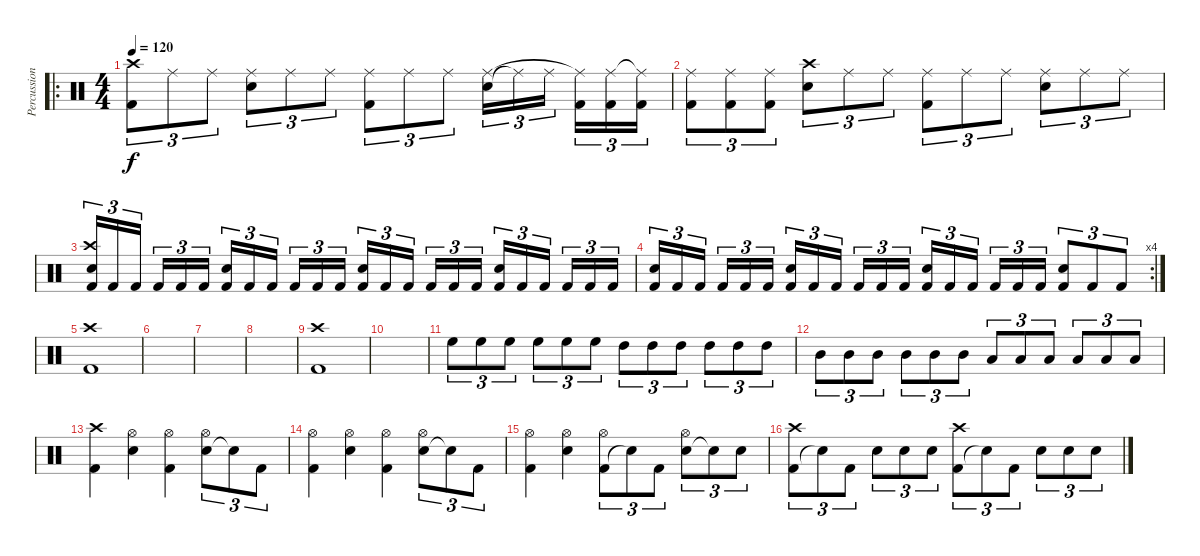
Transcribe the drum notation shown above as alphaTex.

\track ("Percussions" "Percussion") {instrument percussion}
\staff {score}
\articulation defaults
\ro
\ts (4 4)
\tempo 120
\clef neutral
\ks c
("Kick (hit) 2" "Crash high (hit)").8{tu (3 2) dy f} "Ride (middle)".8{tu (3 2)} "Ride (middle)".8{tu (3 2)} ("Snare (hit) 2" "Ride (middle)").8{tu (3 2)} "Ride (middle)".8{tu (3 2)} "Ride (middle)".8{tu (3 2)} ("Kick (hit) 2" "Ride (middle)").8{tu (3 2)} "Ride (middle)".8{tu (3 2)} "Ride (middle)".8{tu (3 2)} ("Snare (hit) 2" "Ride (middle)").16{tu (3 2)} "Ride (middle)"{t}.16{tu (3 2)} "Ride (middle)".16{tu (3 2)} ("Kick (hit) 2" "Ride (middle)"{t}).16{tu (3 2)} ("Kick (hit) 2" "Ride (middle)").16{tu (3 2)} ("Kick (hit) 2" "Ride (middle)"{t}).16{tu (3 2)} |
("Kick (hit) 2" "Ride (middle)").8{tu (3 2)} ("Kick (hit) 2" "Ride (middle)").8{tu (3 2)} ("Kick (hit) 2" "Ride (middle)").8{tu (3 2)} ("Snare (hit) 2" "Crash high (hit)").8{tu (3 2)} "Ride (middle)".8{tu (3 2)} "Ride (middle)".8{tu (3 2)} ("Kick (hit) 2" "Ride (middle)").8{tu (3 2)} "Ride (middle)".8{tu (3 2)} "Ride (middle)".8{tu (3 2)} ("Snare (hit) 2" "Ride (middle)").8{tu (3 2)} "Ride (middle)".8{tu (3 2)} "Ride (middle)".8{tu (3 2)} |
("Kick (hit) 2" "Snare (hit) 2" "Crash high (hit)").16{tu (3 2)} "Kick (hit) 2".16{tu (3 2)} "Kick (hit) 2".16{tu (3 2)} "Kick (hit) 2".16{tu (3 2)} "Kick (hit) 2".16{tu (3 2)} "Kick (hit) 2".16{tu (3 2)} ("Kick (hit) 2" "Snare (hit) 2").16{tu (3 2)} "Kick (hit) 2".16{tu (3 2)} "Kick (hit) 2".16{tu (3 2)} "Kick (hit) 2".16{tu (3 2)} "Kick (hit) 2".16{tu (3 2)} "Kick (hit) 2".16{tu (3 2)} ("Kick (hit) 2" "Snare (hit) 2").16{tu (3 2)} "Kick (hit) 2".16{tu (3 2)} "Kick (hit) 2".16{tu (3 2)} "Kick (hit) 2".16{tu (3 2)} "Kick (hit) 2".16{tu (3 2)} "Kick (hit) 2".16{tu (3 2)} ("Kick (hit) 2" "Snare (hit) 2").16{tu (3 2)} "Kick (hit) 2".16{tu (3 2)} "Kick (hit) 2".16{tu (3 2)} "Kick (hit) 2".16{tu (3 2)} "Kick (hit) 2".16{tu (3 2)} "Kick (hit) 2".16{tu (3 2)} |
\rc 4
("Kick (hit) 2" "Snare (hit) 2").16{tu (3 2)} "Kick (hit) 2".16{tu (3 2)} "Kick (hit) 2".16{tu (3 2)} "Kick (hit) 2".16{tu (3 2)} "Kick (hit) 2".16{tu (3 2)} "Kick (hit) 2".16{tu (3 2)} ("Kick (hit) 2" "Snare (hit) 2").16{tu (3 2)} "Kick (hit) 2".16{tu (3 2)} "Kick (hit) 2".16{tu (3 2)} "Kick (hit) 2".16{tu (3 2)} "Kick (hit) 2".16{tu (3 2)} "Kick (hit) 2".16{tu (3 2)} ("Kick (hit) 2" "Snare (hit) 2").16{tu (3 2)} "Kick (hit) 2".16{tu (3 2)} "Kick (hit) 2".16{tu (3 2)} "Kick (hit) 2".16{tu (3 2)} "Kick (hit) 2".16{tu (3 2)} "Kick (hit) 2".16{tu (3 2)} ("Kick (hit) 2" "Snare (hit) 2").8{tu (3 2)} "Kick (hit) 2".8{tu (3 2)} "Kick (hit) 2".8{tu (3 2)} |
("Kick (hit) 2" "Crash high (hit)").1 |
|
|
|
("Kick (hit) 2" "Crash high (hit)").1 |
|
"High Floor Tom (hit)".8{tu (3 2)} "High Floor Tom (hit)".8{tu (3 2)} "High Floor Tom (hit)".8{tu (3 2)} "High Floor Tom (hit)".8{tu (3 2)} "High Floor Tom (hit)".8{tu (3 2)} "High Floor Tom (hit)".8{tu (3 2)} "High Tom (hit)".8{tu (3 2)} "High Tom (hit)".8{tu (3 2)} "High Tom (hit)".8{tu (3 2)} "High Tom (hit)".8{tu (3 2)} "High Tom (hit)".8{tu (3 2)} "High Tom (hit)".8{tu (3 2)} |
"Mid Tom (hit)".8{tu (3 2)} "Mid Tom (hit)".8{tu (3 2)} "Mid Tom (hit)".8{tu (3 2)} "Mid Tom (hit)".8{tu (3 2)} "Mid Tom (hit)".8{tu (3 2)} "Mid Tom (hit)".8{tu (3 2)} "Low Tom (hit)".8{tu (3 2)} "Low Tom (hit)".8{tu (3 2)} "Low Tom (hit)".8{tu (3 2)} "Low Tom (hit)".8{tu (3 2)} "Low Tom (hit)".8{tu (3 2)} "Low Tom (hit)".8{tu (3 2)} |
("Kick (hit) 2" "Crash high (hit)").4 ("Snare (hit) 2" "Hi-Hat (open)").4 ("Kick (hit) 2" "Hi-Hat (open)").4 ("Snare (hit) 2" "Hi-Hat (open)").8{tu (3 2)} "Snare (hit)"{t}.8{tu (3 2)} "Kick (hit) 2".8{tu (3 2)} |
("Kick (hit) 2" "Hi-Hat (open)").4 ("Snare (hit) 2" "Hi-Hat (open)").4 ("Kick (hit) 2" "Hi-Hat (open)").4 ("Snare (hit) 2" "Hi-Hat (open)").8{tu (3 2)} "Snare (hit)"{t}.8{tu (3 2)} "Kick (hit) 2".8{tu (3 2)} |
("Kick (hit) 2" "Hi-Hat (open)").4 ("Snare (hit) 2" "Hi-Hat (open)").4 ("Kick (hit) 2" "Hi-Hat (open)").8{tu (3 2)} "Snare (hit)"{t}.8{tu (3 2)} "Kick (hit) 2".8{tu (3 2)} ("Snare (hit) 2" "Hi-Hat (open)").8{tu (3 2)} "Snare (hit)"{t}.8{tu (3 2)} "Snare (hit) 2".8{tu (3 2)} |
("Kick (hit) 2" "Crash high (hit)").8{tu (3 2)} "Snare (hit)"{t}.8{tu (3 2)} "Kick (hit) 2".8{tu (3 2)} "Snare (hit) 2".8{tu (3 2)} "Snare (hit) 2".8{tu (3 2)} "Snare (hit) 2".8{tu (3 2)} ("Kick (hit) 2" "Crash high (hit)").8{tu (3 2)} "Snare (hit)"{t}.8{tu (3 2)} "Kick (hit) 2".8{tu (3 2)} "Snare (hit) 2".8{tu (3 2)} "Snare (hit) 2".8{tu (3 2)} "Snare (hit) 2".8{tu (3 2)}
